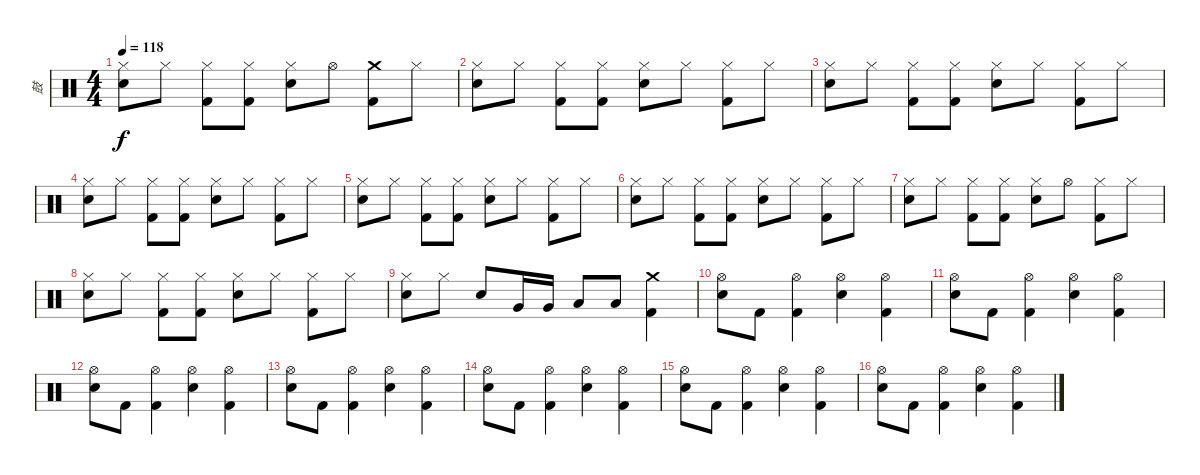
\track ("鼓" "鼓") {instrument percussion}
\staff {score}
\articulation defaults
\ts (4 4)
\tempo 118
\clef neutral
\ks c
("Hi-Hat (closed)" "Electric Snare (hit)").8{dy f} "Hi-Hat (closed)".8 ("Hi-Hat (closed)" "Kick (hit) 2").8 ("Hi-Hat (closed)" "Kick (hit) 2").8 ("Hi-Hat (closed)" "Electric Snare (hit)").8 "Hi-Hat (open)".8 ("Crash medium (hit)" "Kick (hit) 2").8 "Hi-Hat (closed)".8 |
("Hi-Hat (closed)" "Electric Snare (hit)").8 "Hi-Hat (closed)".8 ("Hi-Hat (closed)" "Kick (hit) 2").8 ("Hi-Hat (closed)" "Kick (hit) 2").8 ("Hi-Hat (closed)" "Electric Snare (hit)").8 "Hi-Hat (closed)".8 ("Hi-Hat (closed)" "Kick (hit) 2").8 "Hi-Hat (closed)".8 |
("Hi-Hat (closed)" "Electric Snare (hit)").8 "Hi-Hat (closed)".8 ("Hi-Hat (closed)" "Kick (hit) 2").8 ("Hi-Hat (closed)" "Kick (hit) 2").8 ("Hi-Hat (closed)" "Electric Snare (hit)").8 "Hi-Hat (closed)".8 ("Hi-Hat (closed)" "Kick (hit) 2").8 "Hi-Hat (closed)".8 |
("Hi-Hat (closed)" "Electric Snare (hit)").8 "Hi-Hat (closed)".8 ("Hi-Hat (closed)" "Kick (hit) 2").8 ("Hi-Hat (closed)" "Kick (hit) 2").8 ("Hi-Hat (closed)" "Electric Snare (hit)").8 "Hi-Hat (closed)".8 ("Hi-Hat (closed)" "Kick (hit) 2").8 "Hi-Hat (closed)".8 |
("Hi-Hat (closed)" "Electric Snare (hit)").8 "Hi-Hat (closed)".8 ("Hi-Hat (closed)" "Kick (hit) 2").8 ("Hi-Hat (closed)" "Kick (hit) 2").8 ("Hi-Hat (closed)" "Electric Snare (hit)").8 "Hi-Hat (closed)".8 ("Hi-Hat (closed)" "Kick (hit) 2").8 "Hi-Hat (closed)".8 |
("Hi-Hat (closed)" "Electric Snare (hit)").8 "Hi-Hat (closed)".8 ("Hi-Hat (closed)" "Kick (hit) 2").8 ("Hi-Hat (closed)" "Kick (hit) 2").8 ("Hi-Hat (closed)" "Electric Snare (hit)").8 "Hi-Hat (closed)".8 ("Hi-Hat (closed)" "Kick (hit) 2").8 "Hi-Hat (closed)".8 |
("Hi-Hat (closed)" "Electric Snare (hit)").8 "Hi-Hat (closed)".8 ("Hi-Hat (closed)" "Kick (hit) 2").8 ("Hi-Hat (closed)" "Kick (hit) 2").8 ("Hi-Hat (closed)" "Electric Snare (hit)").8 "Hi-Hat (open)".8 ("Hi-Hat (closed)" "Kick (hit) 2").8 "Hi-Hat (closed)".8 |
("Hi-Hat (closed)" "Electric Snare (hit)").8 "Hi-Hat (closed)".8 ("Hi-Hat (closed)" "Kick (hit) 2").8 ("Hi-Hat (closed)" "Kick (hit) 2").8 ("Hi-Hat (closed)" "Electric Snare (hit)").8 "Hi-Hat (closed)".8 ("Hi-Hat (closed)" "Kick (hit) 2").8 "Hi-Hat (closed)".8 |
("Hi-Hat (closed)" "Electric Snare (hit)").8 "Hi-Hat (closed)".8 "Electric Snare (hit)".8 "Very Low Tom (hit)".16 "Very Low Tom (hit)".16 "Low Tom (hit)".8 "Low Tom (hit)".8 ("Crash medium (hit)" "Kick (hit) 2").4 |
("Hi-Hat (open)" "Electric Snare (hit)").8 "Kick (hit) 2".8 ("Hi-Hat (open)" "Kick (hit) 2").4 ("Hi-Hat (open)" "Electric Snare (hit)").4 ("Hi-Hat (open)" "Kick (hit) 2").4 |
("Hi-Hat (open)" "Electric Snare (hit)").8 "Kick (hit) 2".8 ("Hi-Hat (open)" "Kick (hit) 2").4 ("Hi-Hat (open)" "Electric Snare (hit)").4 ("Hi-Hat (open)" "Kick (hit) 2").4 |
("Hi-Hat (open)" "Electric Snare (hit)").8 "Kick (hit) 2".8 ("Hi-Hat (open)" "Kick (hit) 2").4 ("Hi-Hat (open)" "Electric Snare (hit)").4 ("Hi-Hat (open)" "Kick (hit) 2").4 |
("Hi-Hat (open)" "Electric Snare (hit)").8 "Kick (hit) 2".8 ("Hi-Hat (open)" "Kick (hit) 2").4 ("Hi-Hat (open)" "Electric Snare (hit)").4 ("Hi-Hat (open)" "Kick (hit) 2").4 |
("Hi-Hat (open)" "Electric Snare (hit)").8 "Kick (hit) 2".8 ("Hi-Hat (open)" "Kick (hit) 2").4 ("Hi-Hat (open)" "Electric Snare (hit)").4 ("Hi-Hat (open)" "Kick (hit) 2").4 |
("Hi-Hat (open)" "Electric Snare (hit)").8 "Kick (hit) 2".8 ("Hi-Hat (open)" "Kick (hit) 2").4 ("Hi-Hat (open)" "Electric Snare (hit)").4 ("Hi-Hat (open)" "Kick (hit) 2").4 |
("Hi-Hat (open)" "Electric Snare (hit)").8 "Kick (hit) 2".8 ("Hi-Hat (open)" "Kick (hit) 2").4 ("Hi-Hat (open)" "Electric Snare (hit)").4 ("Hi-Hat (open)" "Kick (hit) 2").4
